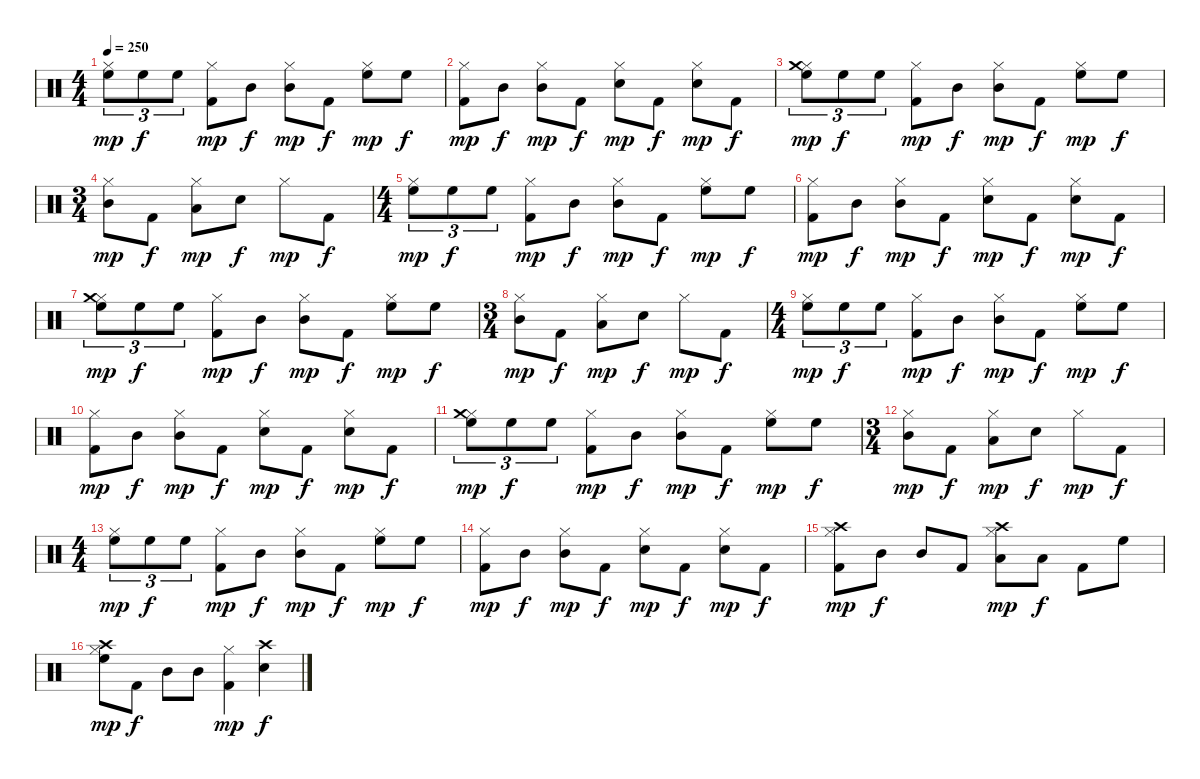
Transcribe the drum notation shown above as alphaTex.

\track "" {instrument percussion}
\staff {score}
\articulation defaults
\ts (4 4)
\tempo 250
\clef neutral
\ks c
("Hi-Hat (closed)" "High Floor Tom (hit)").8{tu (3 2) dy mp balance 14} "High Floor Tom (hit)".8{tu (3 2) dy f} "High Floor Tom (hit)".8{tu (3 2)} ("Hi-Hat (closed)" "Kick (hit) 2").8{dy mp balance 8} "Mid Tom (hit)".8{dy f} ("Hi-Hat (closed)" "Mid Tom (hit)").8{dy mp} "Kick (hit) 2".8{dy f} ("Hi-Hat (closed)" "High Floor Tom (hit)").8{dy mp balance 14} "High Floor Tom (hit)".8{dy f} |
("Hi-Hat (closed)" "Kick (hit) 2").8{dy mp balance 8} "Mid Tom (hit)".8{dy f} ("Hi-Hat (closed)" "Mid Tom (hit)").8{dy mp} "Kick (hit) 2".8{dy f} ("Hi-Hat (closed)" "Electric Snare (hit)").8{dy mp} "Kick (hit) 2".8{dy f} ("Hi-Hat (closed)" "Electric Snare (hit)").8{dy mp} "Kick (hit) 2".8{dy f} |
("Hi-Hat (closed)" "High Floor Tom (hit)" "Crash medium (hit)").8{tu (3 2) dy mp balance 14} "High Floor Tom (hit)".8{tu (3 2) dy f} "High Floor Tom (hit)".8{tu (3 2)} ("Hi-Hat (closed)" "Kick (hit) 2").8{dy mp balance 8} "Mid Tom (hit)".8{dy f} ("Hi-Hat (closed)" "Mid Tom (hit)").8{dy mp} "Kick (hit) 2".8{dy f} ("Hi-Hat (closed)" "High Floor Tom (hit)").8{dy mp balance 14} "High Floor Tom (hit)".8{dy f} |
\ts (3 4)
("Hi-Hat (closed)" "Mid Tom (hit)").8{dy mp balance 8} "Kick (hit) 2".8{dy f} ("Hi-Hat (closed)" "Low Tom (hit)").8{dy mp balance 2} "Electric Snare (hit)".8{dy f balance 8} "Hi-Hat (closed)".8{dy mp} "Kick (hit) 2".8{dy f} |
\ts (4 4)
("Hi-Hat (closed)" "High Floor Tom (hit)").8{tu (3 2) dy mp balance 14} "High Floor Tom (hit)".8{tu (3 2) dy f} "High Floor Tom (hit)".8{tu (3 2)} ("Hi-Hat (closed)" "Kick (hit) 2").8{dy mp balance 8} "Mid Tom (hit)".8{dy f} ("Hi-Hat (closed)" "Mid Tom (hit)").8{dy mp} "Kick (hit) 2".8{dy f} ("Hi-Hat (closed)" "High Floor Tom (hit)").8{dy mp balance 14} "High Floor Tom (hit)".8{dy f} |
("Hi-Hat (closed)" "Kick (hit) 2").8{dy mp balance 8} "Mid Tom (hit)".8{dy f} ("Hi-Hat (closed)" "Mid Tom (hit)").8{dy mp} "Kick (hit) 2".8{dy f} ("Hi-Hat (closed)" "Electric Snare (hit)").8{dy mp} "Kick (hit) 2".8{dy f} ("Hi-Hat (closed)" "Electric Snare (hit)").8{dy mp} "Kick (hit) 2".8{dy f} |
("Hi-Hat (closed)" "High Floor Tom (hit)" "Crash medium (hit)").8{tu (3 2) dy mp balance 14} "High Floor Tom (hit)".8{tu (3 2) dy f} "High Floor Tom (hit)".8{tu (3 2)} ("Hi-Hat (closed)" "Kick (hit) 2").8{dy mp balance 8} "Mid Tom (hit)".8{dy f} ("Hi-Hat (closed)" "Mid Tom (hit)").8{dy mp} "Kick (hit) 2".8{dy f} ("Hi-Hat (closed)" "High Floor Tom (hit)").8{dy mp balance 14} "High Floor Tom (hit)".8{dy f} |
\ts (3 4)
("Hi-Hat (closed)" "Mid Tom (hit)").8{dy mp balance 8} "Kick (hit) 2".8{dy f} ("Hi-Hat (closed)" "Low Tom (hit)").8{dy mp balance 2} "Electric Snare (hit)".8{dy f balance 8} "Hi-Hat (closed)".8{dy mp} "Kick (hit) 2".8{dy f} |
\ts (4 4)
("Hi-Hat (closed)" "High Floor Tom (hit)").8{tu (3 2) dy mp balance 14} "High Floor Tom (hit)".8{tu (3 2) dy f} "High Floor Tom (hit)".8{tu (3 2)} ("Hi-Hat (closed)" "Kick (hit) 2").8{dy mp balance 8} "Mid Tom (hit)".8{dy f} ("Hi-Hat (closed)" "Mid Tom (hit)").8{dy mp} "Kick (hit) 2".8{dy f} ("Hi-Hat (closed)" "High Floor Tom (hit)").8{dy mp balance 14} "High Floor Tom (hit)".8{dy f} |
("Hi-Hat (closed)" "Kick (hit) 2").8{dy mp balance 8} "Mid Tom (hit)".8{dy f} ("Hi-Hat (closed)" "Mid Tom (hit)").8{dy mp} "Kick (hit) 2".8{dy f} ("Hi-Hat (closed)" "Electric Snare (hit)").8{dy mp} "Kick (hit) 2".8{dy f} ("Hi-Hat (closed)" "Electric Snare (hit)").8{dy mp} "Kick (hit) 2".8{dy f} |
("Hi-Hat (closed)" "High Floor Tom (hit)" "Crash medium (hit)").8{tu (3 2) dy mp balance 14} "High Floor Tom (hit)".8{tu (3 2) dy f} "High Floor Tom (hit)".8{tu (3 2)} ("Hi-Hat (closed)" "Kick (hit) 2").8{dy mp balance 8} "Mid Tom (hit)".8{dy f} ("Hi-Hat (closed)" "Mid Tom (hit)").8{dy mp} "Kick (hit) 2".8{dy f} ("Hi-Hat (closed)" "High Floor Tom (hit)").8{dy mp balance 14} "High Floor Tom (hit)".8{dy f} |
\ts (3 4)
("Hi-Hat (closed)" "Mid Tom (hit)").8{dy mp balance 8} "Kick (hit) 2".8{dy f} ("Hi-Hat (closed)" "Low Tom (hit)").8{dy mp balance 2} "Electric Snare (hit)".8{dy f balance 8} "Hi-Hat (closed)".8{dy mp} "Kick (hit) 2".8{dy f} |
\ts (4 4)
("Hi-Hat (closed)" "High Floor Tom (hit)").8{tu (3 2) dy mp balance 14} "High Floor Tom (hit)".8{tu (3 2) dy f} "High Floor Tom (hit)".8{tu (3 2)} ("Hi-Hat (closed)" "Kick (hit) 2").8{dy mp balance 8} "Mid Tom (hit)".8{dy f} ("Hi-Hat (closed)" "Mid Tom (hit)").8{dy mp} "Kick (hit) 2".8{dy f} ("Hi-Hat (closed)" "High Floor Tom (hit)").8{dy mp balance 14} "High Floor Tom (hit)".8{dy f} |
("Hi-Hat (closed)" "Kick (hit) 2").8{dy mp balance 8} "Mid Tom (hit)".8{dy f} ("Hi-Hat (closed)" "Mid Tom (hit)").8{dy mp} "Kick (hit) 2".8{dy f} ("Hi-Hat (closed)" "Electric Snare (hit)").8{dy mp} "Kick (hit) 2".8{dy f} ("Hi-Hat (closed)" "Electric Snare (hit)").8{dy mp} "Kick (hit) 2".8{dy f} |
("Hi-Hat (closed)" "Kick (hit) 2" "Crash high (hit)").8{dy mp} "Mid Tom (hit)".8{dy f} "Mid Tom (hit)".8 "Kick (hit) 2".8 ("Hi-Hat (closed)" "Low Tom (hit)" "Crash high (hit)").8{dy mp balance 2} "Low Tom (hit)".8{dy f} "Kick (hit) 2".8{balance 8} "High Floor Tom (hit)".8{balance 14} |
("Hi-Hat (closed)" "High Floor Tom (hit)" "Crash high (hit)").8{dy mp} "Kick (hit) 2".8{dy f balance 8} "Mid Tom (hit)".8 "Mid Tom (hit)".8 ("Hi-Hat (closed)" "Kick (hit) 2").4{dy mp} ("Electric Snare (hit)" "Crash high (hit)").4{dy f}
